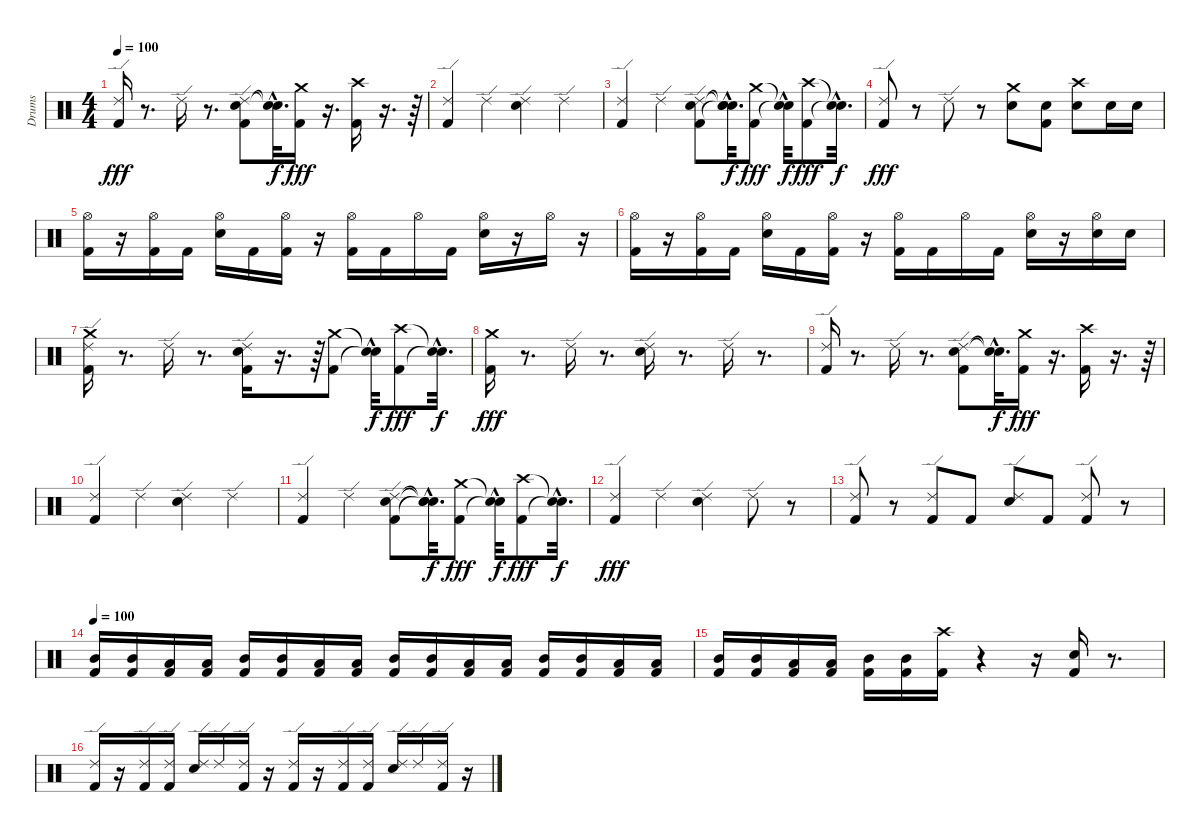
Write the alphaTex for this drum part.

\track ("Drums" "Drums") {instrument percussion}
\staff {score}
\articulation defaults
\ts (4 4)
\tempo 100
\clef neutral
\ks c
("Ride (edge) 2" "Kick (hit) 2").16{dy fff} r.8{d} "Ride (edge) 2".16 r.8{d} ("Ride (edge) 2" "Electric Snare (hit)" "Kick (hit) 2").8 ("Snare (hit)"{hac t} "Snare (hit)"{hac t}).32{d dy f} ("Crash medium (hit)" "Kick (hit) 2").16{dy fff} r.16{d} ("Crash high (hit)" "Kick (hit) 2").16 r.16{d} r.64 |
("Ride (edge) 2" "Kick (hit) 2").4 "Ride (edge) 2".4 ("Electric Snare (hit)" "Ride (edge) 2").4 "Ride (edge) 2".4 |
("Ride (edge) 2" "Kick (hit) 2").4 "Ride (edge) 2".4 ("Electric Snare (hit)" "Ride (edge) 2" "Kick (hit) 2").8 ("Snare (hit)"{hac t} "Snare (hit)"{hac t} "Snare (hit)"{hac t}).32{d dy f} ("Crash medium (hit)" "Kick (hit) 2").8{dy fff} ("Snare (hit)"{hac t} "Snare (hit)"{hac t}).32{dy f} ("Crash high (hit)" "Kick (hit) 2").8{dy fff} ("Snare (hit)"{hac t} "Snare (hit)"{hac t}).32{d dy f} |
("Ride (edge) 2" "Kick (hit) 2").8{dy fff} r.8 "Ride (edge) 2".8 r.8 ("Crash medium (hit)" "Electric Snare (hit)").8 ("Electric Snare (hit)" "Kick (hit) 2").8 ("Electric Snare (hit)" "Crash high (hit)").8 "Electric Snare (hit)".16 "Electric Snare (hit)".16 |
("Hi-Hat (open)" "Kick (hit) 2").16 r.16 ("Hi-Hat (open)" "Kick (hit) 2").16 "Kick (hit) 2".16 ("Hi-Hat (open)" "Electric Snare (hit)").16 "Kick (hit) 2".16 ("Hi-Hat (open)" "Kick (hit) 2").16 r.16 ("Hi-Hat (open)" "Kick (hit) 2").16 "Kick (hit) 2".16 "Hi-Hat (open)".16 "Kick (hit) 2".16 ("Hi-Hat (open)" "Electric Snare (hit)").16 r.16 "Hi-Hat (open)".16 r.16 |
("Hi-Hat (open)" "Kick (hit) 2").16 r.16 ("Hi-Hat (open)" "Kick (hit) 2").16 "Kick (hit) 2".16 ("Hi-Hat (open)" "Electric Snare (hit)").16 "Kick (hit) 2".16 ("Hi-Hat (open)" "Kick (hit) 2").16 r.16 ("Hi-Hat (open)" "Kick (hit) 2").16 "Kick (hit) 2".16 "Hi-Hat (open)".16 "Kick (hit) 2".16 ("Hi-Hat (open)" "Electric Snare (hit)").16 r.16 ("Electric Snare (hit)" "Hi-Hat (open)").16 "Electric Snare (hit)".16 |
("Ride (edge) 2" "Crash medium (hit)" "Kick (hit) 2").16 r.8{d} "Ride (edge) 2".16 r.8{d} ("Ride (edge) 2" "Electric Snare (hit)" "Kick (hit) 2").16 r.16{d} r.64 ("Crash medium (hit)" "Kick (hit) 2").8 ("Snare (hit)"{hac t} "Snare (hit)"{hac t}).32{dy f} ("Crash high (hit)" "Kick (hit) 2").8{dy fff} ("Snare (hit)"{hac t} "Snare (hit)"{hac t}).32{d dy f} |
("Crash medium (hit)" "Kick (hit) 2").16{dy fff} r.8{d} "Ride (edge) 2".16 r.8{d} ("Ride (edge) 2" "Electric Snare (hit)").16 r.8{d} "Ride (edge) 2".16 r.8{d} |
("Ride (edge) 2" "Kick (hit) 2").16 r.8{d} "Ride (edge) 2".16 r.8{d} ("Ride (edge) 2" "Electric Snare (hit)" "Kick (hit) 2").8 ("Snare (hit)"{hac t} "Snare (hit)"{hac t}).32{d dy f} ("Crash medium (hit)" "Kick (hit) 2").16{dy fff} r.16{d} ("Crash high (hit)" "Kick (hit) 2").16 r.16{d} r.64 |
("Ride (edge) 2" "Kick (hit) 2").4 "Ride (edge) 2".4 ("Electric Snare (hit)" "Ride (edge) 2").4 "Ride (edge) 2".4 |
("Ride (edge) 2" "Kick (hit) 2").4 "Ride (edge) 2".4 ("Ride (edge) 2" "Electric Snare (hit)" "Kick (hit) 2").8 ("Snare (hit)"{hac t} "Snare (hit)"{hac t} "Snare (hit)"{hac t}).32{d dy f} ("Crash medium (hit)" "Kick (hit) 2").8{dy fff} ("Snare (hit)"{hac t} "Snare (hit)"{hac t}).32{dy f} ("Crash high (hit)" "Kick (hit) 2").8{dy fff} ("Snare (hit)"{hac t} "Snare (hit)"{hac t}).32{d dy f} |
("Ride (edge) 2" "Kick (hit) 2").4{dy fff} "Ride (edge) 2".4 ("Ride (edge) 2" "Electric Snare (hit)").4 "Ride (edge) 2".8 r.8 |
("Ride (edge) 2" "Kick (hit) 2").8 r.8 ("Ride (edge) 2" "Kick (hit) 2").8 "Kick (hit) 2".8 ("Ride (edge) 2" "Electric Snare (hit)").8 "Kick (hit) 2".8 ("Kick (hit) 2" "Ride (edge) 2").8 r.8 |
\tempo 100
("Kick (hit) 2" "Mid Tom (hit)").16 ("Kick (hit) 2" "Mid Tom (hit)").16 ("Kick (hit) 2" "Low Tom (hit)").16 ("Kick (hit) 2" "Low Tom (hit)").16 ("Kick (hit) 2" "Mid Tom (hit)").16 ("Kick (hit) 2" "Mid Tom (hit)").16 ("Kick (hit) 2" "Low Tom (hit)").16 ("Kick (hit) 2" "Low Tom (hit)").16 ("Kick (hit) 2" "Mid Tom (hit)").16 ("Kick (hit) 2" "Mid Tom (hit)").16 ("Kick (hit) 2" "Low Tom (hit)").16 ("Kick (hit) 2" "Low Tom (hit)").16 ("Kick (hit) 2" "Mid Tom (hit)").16 ("Kick (hit) 2" "Mid Tom (hit)").16 ("Kick (hit) 2" "Low Tom (hit)").16 ("Kick (hit) 2" "Low Tom (hit)").16 |
("Kick (hit) 2" "Mid Tom (hit)").16 ("Kick (hit) 2" "Mid Tom (hit)").16 ("Kick (hit) 2" "Low Tom (hit)").16 ("Kick (hit) 2" "Low Tom (hit)").16 ("Kick (hit) 2" "Mid Tom (hit)").16 ("Kick (hit) 2" "Mid Tom (hit)").16 ("Kick (hit) 2" "Crash high (hit)").16 r.4 r.16 ("Electric Snare (hit)" "Kick (hit) 2").16 r.8{d} |
("Kick (hit) 2" "Ride (edge) 2").16 r.16 ("Kick (hit) 2" "Ride (edge) 2").16 ("Kick (hit) 2" "Ride (edge) 2").16 ("Electric Snare (hit)" "Ride (edge) 2").16 "Ride (edge) 2".16 ("Kick (hit) 2" "Ride (edge) 2").16 r.16 ("Kick (hit) 2" "Ride (edge) 2").16 r.16 ("Kick (hit) 2" "Ride (edge) 2").16 ("Kick (hit) 2" "Ride (edge) 2").16 ("Electric Snare (hit)" "Ride (edge) 2").16 "Ride (edge) 2".16 ("Kick (hit) 2" "Ride (edge) 2").16 r.16
